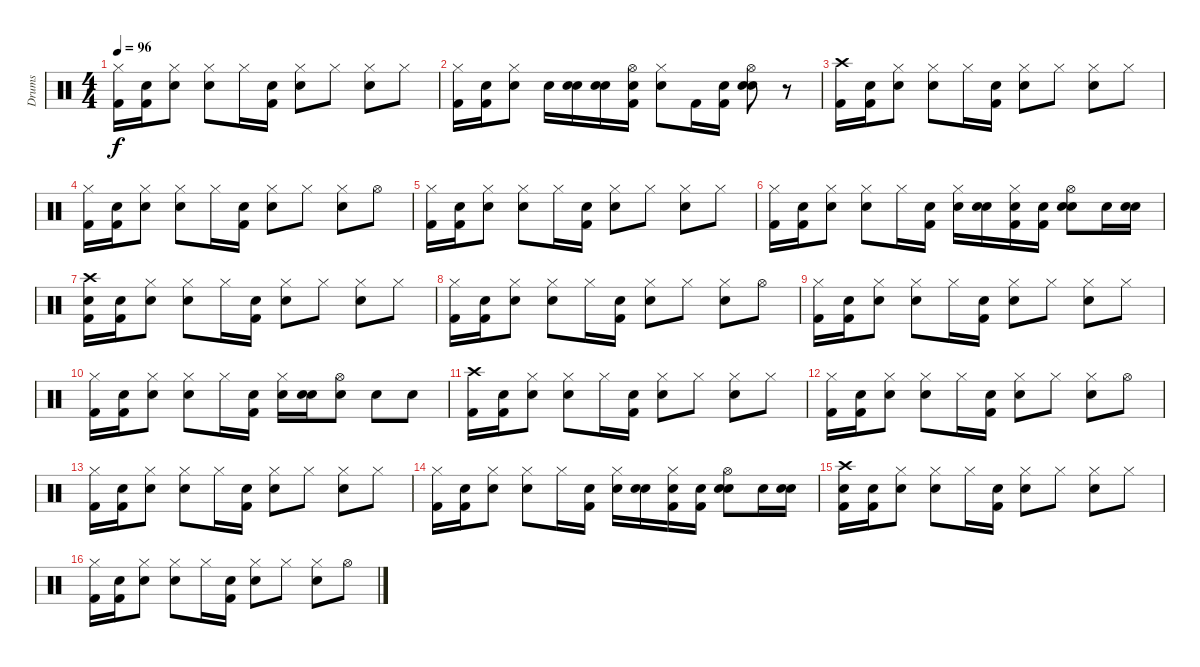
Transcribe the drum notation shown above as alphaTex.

\track ("Drums" "Drums") {instrument percussion}
\staff {score}
\articulation defaults
\ts (4 4)
\tempo 96
\clef neutral
\ks c
("Hi-Hat (closed)" "Kick (hit) 2").16{dy f} ("Snare (hit)" "Kick (hit) 2").16 ("Snare (hit)" "Hi-Hat (closed)").8 ("Snare (hit) 2" "Hi-Hat (closed)").8 "Hi-Hat (closed)".16 ("Snare (hit)" "Kick (hit) 2").16 ("Snare (hit)" "Hi-Hat (closed)").8 "Hi-Hat (closed)".8 ("Snare (hit) 2" "Hi-Hat (closed)").8 "Hi-Hat (closed)".8 |
("Hi-Hat (closed)" "Kick (hit) 2").16 ("Snare (hit)" "Kick (hit) 2").16 ("Snare (hit)" "Hi-Hat (closed)").8 "Snare (hit) 2".16 ("Snare (hit)" "Snare (hit) 2").16 ("Snare (hit)" "Snare (hit) 2").16 ("Snare (hit)" "Hi-Hat (open)" "Kick (hit) 2").16 ("Snare (hit)" "Hi-Hat (closed)").8 "Kick (hit) 2".16 ("Snare (hit)" "Kick (hit) 2").16 ("Snare (hit)" "Snare (hit) 2" "Hi-Hat (open)").8 r.8 |
("Crash high (hit)" "Kick (hit) 2").16 ("Snare (hit)" "Kick (hit) 2").16 ("Snare (hit)" "Hi-Hat (closed)").8 ("Snare (hit) 2" "Hi-Hat (closed)").8 "Hi-Hat (closed)".16 ("Snare (hit)" "Kick (hit) 2").16 ("Snare (hit)" "Hi-Hat (closed)").8 "Hi-Hat (closed)".8 ("Snare (hit) 2" "Hi-Hat (closed)").8 "Hi-Hat (closed)".8 |
("Hi-Hat (closed)" "Kick (hit) 2").16 ("Snare (hit)" "Kick (hit) 2").16 ("Snare (hit)" "Hi-Hat (closed)").8 ("Snare (hit) 2" "Hi-Hat (closed)").8 "Hi-Hat (closed)".16 ("Snare (hit)" "Kick (hit) 2").16 ("Snare (hit)" "Hi-Hat (closed)").8 "Hi-Hat (closed)".8 ("Snare (hit) 2" "Hi-Hat (closed)").8 "Hi-Hat (open)".8 |
("Hi-Hat (closed)" "Kick (hit) 2").16 ("Snare (hit)" "Kick (hit) 2").16 ("Snare (hit)" "Hi-Hat (closed)").8 ("Snare (hit) 2" "Hi-Hat (closed)").8 "Hi-Hat (closed)".16 ("Snare (hit)" "Kick (hit) 2").16 ("Snare (hit)" "Hi-Hat (closed)").8 "Hi-Hat (closed)".8 ("Snare (hit) 2" "Hi-Hat (closed)").8 "Hi-Hat (closed)".8 |
("Kick (hit) 2" "Hi-Hat (closed)").16 ("Snare (hit)" "Kick (hit) 2").16 ("Snare (hit)" "Hi-Hat (closed)").8 ("Snare (hit) 2" "Hi-Hat (closed)").8 "Hi-Hat (closed)".16 ("Snare (hit)" "Kick (hit) 2").16 ("Snare (hit)" "Hi-Hat (closed)").16 ("Snare (hit)" "Snare (hit) 2").16 ("Snare (hit)" "Kick (hit) 2" "Hi-Hat (closed)").16 ("Snare (hit)" "Kick (hit) 2").16 ("Snare (hit)" "Snare (hit) 2" "Hi-Hat (open)").8 "Snare (hit) 2".16 ("Snare (hit)" "Snare (hit) 2").16 |
("Snare (hit)" "Crash high (hit)" "Kick (hit) 2").16 ("Snare (hit)" "Kick (hit) 2").16 ("Snare (hit)" "Hi-Hat (closed)").8 ("Snare (hit) 2" "Hi-Hat (closed)").8 "Hi-Hat (closed)".16 ("Snare (hit)" "Kick (hit) 2").16 ("Snare (hit)" "Hi-Hat (closed)").8 "Hi-Hat (closed)".8 ("Snare (hit) 2" "Hi-Hat (closed)").8 "Hi-Hat (closed)".8 |
("Hi-Hat (closed)" "Kick (hit) 2").16 ("Snare (hit)" "Kick (hit) 2").16 ("Snare (hit)" "Hi-Hat (closed)").8 ("Snare (hit) 2" "Hi-Hat (closed)").8 "Hi-Hat (closed)".16 ("Snare (hit)" "Kick (hit) 2").16 ("Snare (hit)" "Hi-Hat (closed)").8 "Hi-Hat (closed)".8 ("Snare (hit) 2" "Hi-Hat (closed)").8 "Hi-Hat (open)".8 |
("Hi-Hat (closed)" "Kick (hit) 2").16 ("Snare (hit)" "Kick (hit) 2").16 ("Snare (hit)" "Hi-Hat (closed)").8 ("Snare (hit) 2" "Hi-Hat (closed)").8 "Hi-Hat (closed)".16 ("Snare (hit)" "Kick (hit) 2").16 ("Snare (hit)" "Hi-Hat (closed)").8 "Hi-Hat (closed)".8 ("Snare (hit) 2" "Hi-Hat (closed)").8 "Hi-Hat (closed)".8 |
("Hi-Hat (closed)" "Kick (hit) 2").16 ("Snare (hit)" "Kick (hit) 2").16 ("Snare (hit)" "Hi-Hat (closed)").8 ("Snare (hit) 2" "Hi-Hat (closed)").8 "Hi-Hat (closed)".16 ("Snare (hit)" "Kick (hit) 2").16 ("Snare (hit)" "Hi-Hat (closed)").16 ("Snare (hit)" "Snare (hit) 2").16 ("Snare (hit)" "Hi-Hat (open)").8 "Snare (hit) 2".8 "Snare (hit) 2".8 |
("Crash high (hit)" "Kick (hit) 2").16 ("Snare (hit)" "Kick (hit) 2").16 ("Snare (hit)" "Hi-Hat (closed)").8 ("Snare (hit) 2" "Hi-Hat (closed)").8 "Hi-Hat (closed)".16 ("Snare (hit)" "Kick (hit) 2").16 ("Snare (hit)" "Hi-Hat (closed)").8 "Hi-Hat (closed)".8 ("Snare (hit) 2" "Hi-Hat (closed)").8 "Hi-Hat (closed)".8 |
("Hi-Hat (closed)" "Kick (hit) 2").16 ("Snare (hit)" "Kick (hit) 2").16 ("Snare (hit)" "Hi-Hat (closed)").8 ("Snare (hit) 2" "Hi-Hat (closed)").8 "Hi-Hat (closed)".16 ("Snare (hit)" "Kick (hit) 2").16 ("Snare (hit)" "Hi-Hat (closed)").8 "Hi-Hat (closed)".8 ("Snare (hit) 2" "Hi-Hat (closed)").8 "Hi-Hat (open)".8 |
("Hi-Hat (closed)" "Kick (hit) 2").16 ("Snare (hit)" "Kick (hit) 2").16 ("Snare (hit)" "Hi-Hat (closed)").8 ("Snare (hit) 2" "Hi-Hat (closed)").8 "Hi-Hat (closed)".16 ("Snare (hit)" "Kick (hit) 2").16 ("Snare (hit)" "Hi-Hat (closed)").8 "Hi-Hat (closed)".8 ("Snare (hit) 2" "Hi-Hat (closed)").8 "Hi-Hat (closed)".8 |
("Hi-Hat (closed)" "Kick (hit) 2").16 ("Snare (hit)" "Kick (hit) 2").16 ("Snare (hit)" "Hi-Hat (closed)").8 ("Snare (hit) 2" "Hi-Hat (closed)").8 "Hi-Hat (closed)".16 ("Snare (hit)" "Kick (hit) 2").16 ("Snare (hit)" "Hi-Hat (closed)").16 ("Snare (hit)" "Snare (hit) 2").16 ("Snare (hit)" "Hi-Hat (closed)" "Kick (hit) 2").16 ("Snare (hit)" "Kick (hit) 2").16 ("Snare (hit)" "Snare (hit) 2" "Hi-Hat (open)").8 "Snare (hit) 2".16 ("Snare (hit)" "Snare (hit) 2").16 |
("Snare (hit)" "Crash high (hit)" "Kick (hit) 2").16 ("Snare (hit)" "Kick (hit) 2").16 ("Snare (hit)" "Hi-Hat (closed)").8 ("Snare (hit) 2" "Hi-Hat (closed)").8 "Hi-Hat (closed)".16 ("Snare (hit)" "Kick (hit) 2").16 ("Snare (hit)" "Hi-Hat (closed)").8 "Hi-Hat (closed)".8 ("Snare (hit) 2" "Hi-Hat (closed)").8 "Hi-Hat (closed)".8 |
("Hi-Hat (closed)" "Kick (hit) 2").16 ("Snare (hit)" "Kick (hit) 2").16 ("Snare (hit)" "Hi-Hat (closed)").8 ("Snare (hit) 2" "Hi-Hat (closed)").8 "Hi-Hat (closed)".16 ("Snare (hit)" "Kick (hit) 2").16 ("Snare (hit)" "Hi-Hat (closed)").8 "Hi-Hat (closed)".8 ("Snare (hit) 2" "Hi-Hat (closed)").8 "Hi-Hat (open)".8
